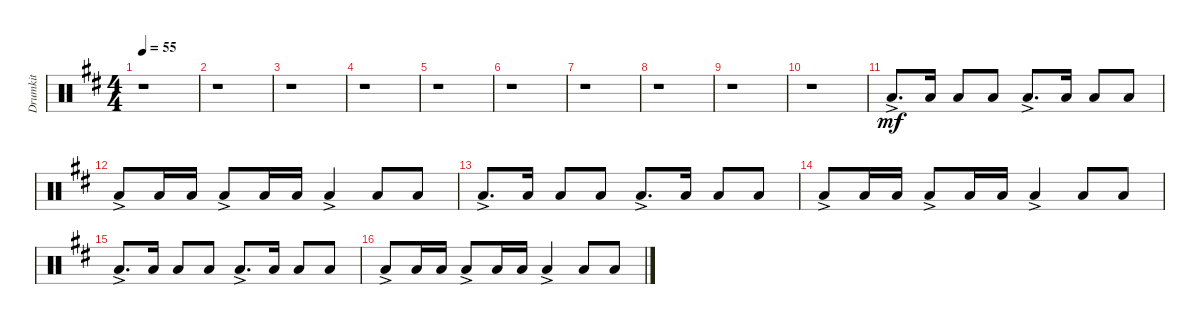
\track ("Drumkit" "Drumkit") {instrument percussion}
\staff {score}
\articulation defaults
\ts (4 4)
\tempo 55
\clef neutral
\ks d
r.1{dy mf} |
r.1 |
r.1 |
r.1 |
r.1 |
r.1 |
r.1 |
r.1 |
r.1 |
r.1 |
"Low Floor Tom (hit)"{ac}.8{d} "Low Tom (hit)".16 "Low Tom (hit)".8 "Low Tom (hit)".8 "Low Floor Tom (hit)"{ac}.8{d} "Low Tom (hit)".16 "Low Tom (hit)".8 "Low Tom (hit)".8 |
"Low Floor Tom (hit)"{ac}.8 "Low Tom (hit)".16 "Low Tom (hit)".16 "Low Floor Tom (hit)"{ac}.8 "Low Tom (hit)".16 "Low Tom (hit)".16 "Low Floor Tom (hit)"{ac}.4 "Low Tom (hit)".8 "Low Tom (hit)".8 |
"Low Floor Tom (hit)"{ac}.8{d} "Low Tom (hit)".16 "Low Tom (hit)".8 "Low Tom (hit)".8 "Low Floor Tom (hit)"{ac}.8{d} "Low Tom (hit)".16 "Low Tom (hit)".8 "Low Tom (hit)".8 |
"Low Floor Tom (hit)"{ac}.8 "Low Tom (hit)".16 "Low Tom (hit)".16 "Low Floor Tom (hit)"{ac}.8 "Low Tom (hit)".16 "Low Tom (hit)".16 "Low Floor Tom (hit)"{ac}.4 "Low Tom (hit)".8 "Low Tom (hit)".8 |
"Low Floor Tom (hit)"{ac}.8{d} "Low Tom (hit)".16 "Low Tom (hit)".8 "Low Tom (hit)".8 "Low Floor Tom (hit)"{ac}.8{d} "Low Tom (hit)".16 "Low Tom (hit)".8 "Low Tom (hit)".8 |
"Low Floor Tom (hit)"{ac}.8 "Low Tom (hit)".16 "Low Tom (hit)".16 "Low Floor Tom (hit)"{ac}.8 "Low Tom (hit)".16 "Low Tom (hit)".16 "Low Floor Tom (hit)"{ac}.4 "Low Tom (hit)".8 "Low Tom (hit)".8
